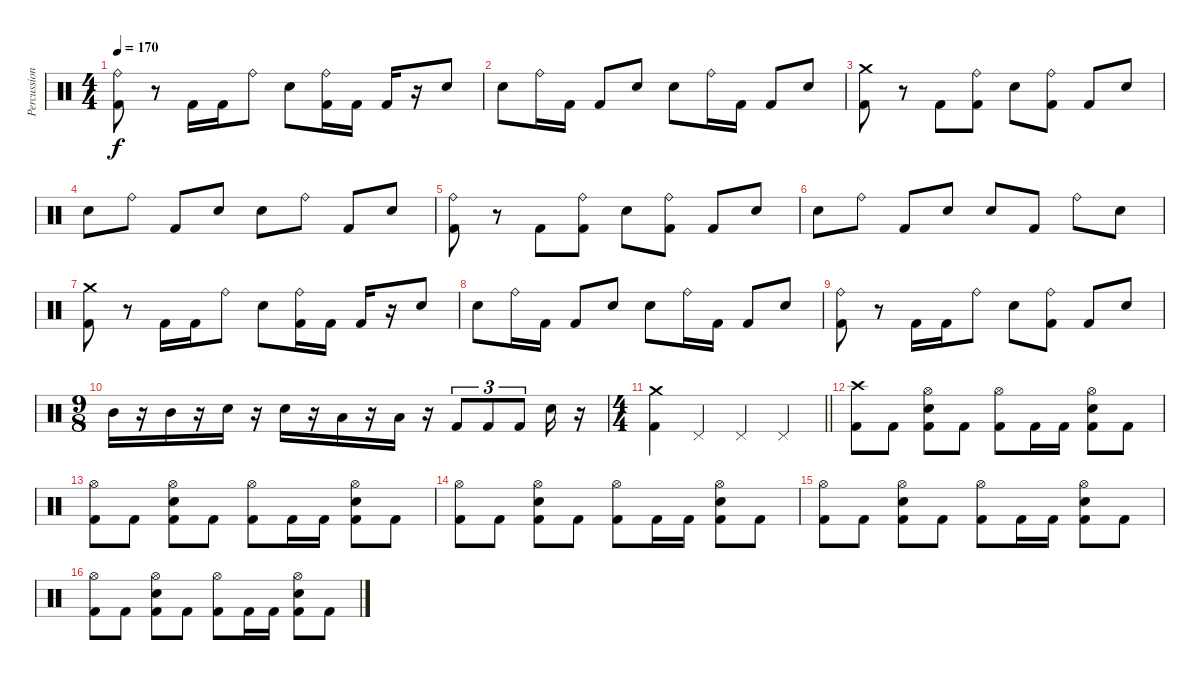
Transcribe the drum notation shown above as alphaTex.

\track ("Percussion" "Percussion") {instrument percussion}
\staff {score}
\articulation defaults
\ts (4 4)
\tempo 170
\clef neutral
\ks c
("Ride (bell)" "Kick (hit) 2").8{dy f} r.8 "Kick (hit) 2".16 "Kick (hit) 2".16 "Ride (bell)".8 "Electric Snare (hit)".8 ("Kick (hit) 2" "Ride (bell)").16 "Kick (hit) 2".16 "Kick (hit) 2".16 r.16 "Electric Snare (hit)".8 |
"Electric Snare (hit)".8 "Ride (bell)".16 "Kick (hit) 2".16 "Kick (hit) 2".8 "Electric Snare (hit)".8 "Electric Snare (hit)".8 "Ride (bell)".16 "Kick (hit) 2".16 "Kick (hit) 2".8 "Electric Snare (hit)".8 |
("Crash medium (hit)" "Kick (hit) 2").8 r.8 "Kick (hit) 2".8 ("Ride (bell)" "Kick (hit) 2").8 "Electric Snare (hit)".8 ("Ride (bell)" "Kick (hit) 2").8 "Kick (hit) 2".8 "Electric Snare (hit)".8 |
"Electric Snare (hit)".8 "Ride (bell)".8 "Kick (hit) 2".8 "Electric Snare (hit)".8 "Electric Snare (hit)".8 "Ride (bell)".8 "Kick (hit) 2".8 "Electric Snare (hit)".8 |
("Ride (bell)" "Kick (hit) 2").8 r.8 "Kick (hit) 2".8 ("Ride (bell)" "Kick (hit) 2").8 "Electric Snare (hit)".8 ("Ride (bell)" "Kick (hit) 2").8 "Kick (hit) 2".8 "Electric Snare (hit)".8 |
"Electric Snare (hit)".8 "Ride (bell)".8 "Kick (hit) 2".8 "Electric Snare (hit)".8 "Electric Snare (hit)".8 "Kick (hit) 2".8 "Ride (bell)".8 "Electric Snare (hit)".8 |
("Crash medium (hit)" "Kick (hit) 2").8 r.8 "Kick (hit) 2".16 "Kick (hit) 2".16 "Ride (bell)".8 "Electric Snare (hit)".8 ("Kick (hit) 2" "Ride (bell)").16 "Kick (hit) 2".16 "Kick (hit) 2".16 r.16 "Electric Snare (hit)".8 |
"Electric Snare (hit)".8 "Ride (bell)".16 "Kick (hit) 2".16 "Kick (hit) 2".8 "Electric Snare (hit)".8 "Electric Snare (hit)".8 "Ride (bell)".16 "Kick (hit) 2".16 "Kick (hit) 2".8 "Electric Snare (hit)".8 |
("Ride (bell)" "Kick (hit) 2").8 r.8 "Kick (hit) 2".16 "Kick (hit) 2".16 "Ride (bell)".8 "Electric Snare (hit)".8 ("Ride (bell)" "Kick (hit) 2").8 "Kick (hit) 2".8 "Electric Snare (hit)".8 |
\ts (9 8)
"Mid Tom (hit)".16 r.16 "Mid Tom (hit)".16 r.16 "Electric Snare (hit)".16 r.16 "Electric Snare (hit)".16 r.16 "Low Tom (hit)".16 r.16 "Low Tom (hit)".16 r.16 "Kick (hit) 2".8{tu (3 2)} "Kick (hit) 2".8{tu (3 2)} "Kick (hit) 2".8{tu (3 2)} "Electric Snare (hit)".16 r.16 |
\ts (4 4)
\barLineRight lightlight
("Crash medium (hit)" "Kick (hit) 2").4 "Pedal Hi-Hat (hit)".4 "Pedal Hi-Hat (hit)".4 "Pedal Hi-Hat (hit)".4 |
\section ("" "")
("Kick (hit) 2" "Crash high (hit)").8 "Kick (hit) 2".8 ("Kick (hit) 2" "Electric Snare (hit)" "Hi-Hat (open)").8 "Kick (hit) 2".8 ("Kick (hit) 2" "Hi-Hat (open)").8 "Kick (hit) 2".16 "Kick (hit) 2".16 ("Kick (hit) 2" "Electric Snare (hit)" "Hi-Hat (open)").8 "Kick (hit) 2".8 |
("Kick (hit) 2" "Hi-Hat (open)").8 "Kick (hit) 2".8 ("Kick (hit) 2" "Electric Snare (hit)" "Hi-Hat (open)").8 "Kick (hit) 2".8 ("Kick (hit) 2" "Hi-Hat (open)").8 "Kick (hit) 2".16 "Kick (hit) 2".16 ("Kick (hit) 2" "Electric Snare (hit)" "Hi-Hat (open)").8 "Kick (hit) 2".8 |
("Kick (hit) 2" "Hi-Hat (open)").8 "Kick (hit) 2".8 ("Kick (hit) 2" "Electric Snare (hit)" "Hi-Hat (open)").8 "Kick (hit) 2".8 ("Kick (hit) 2" "Hi-Hat (open)").8 "Kick (hit) 2".16 "Kick (hit) 2".16 ("Kick (hit) 2" "Electric Snare (hit)" "Hi-Hat (open)").8 "Kick (hit) 2".8 |
("Kick (hit) 2" "Hi-Hat (open)").8 "Kick (hit) 2".8 ("Kick (hit) 2" "Electric Snare (hit)" "Hi-Hat (open)").8 "Kick (hit) 2".8 ("Kick (hit) 2" "Hi-Hat (open)").8 "Kick (hit) 2".16 "Kick (hit) 2".16 ("Kick (hit) 2" "Electric Snare (hit)" "Hi-Hat (open)").8 "Kick (hit) 2".8 |
("Kick (hit) 2" "Hi-Hat (open)").8 "Kick (hit) 2".8 ("Kick (hit) 2" "Electric Snare (hit)" "Hi-Hat (open)").8 "Kick (hit) 2".8 ("Kick (hit) 2" "Hi-Hat (open)").8 "Kick (hit) 2".16 "Kick (hit) 2".16 ("Kick (hit) 2" "Electric Snare (hit)" "Hi-Hat (open)").8 "Kick (hit) 2".8
